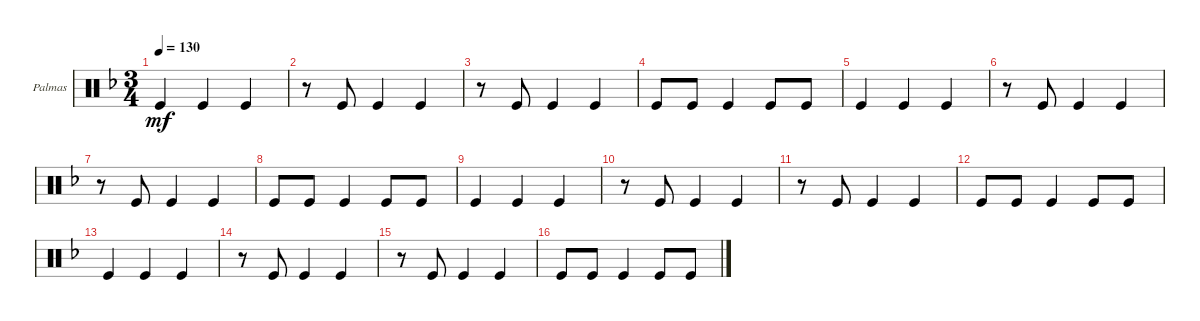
\defaultSystemsLayout 4
\bracketExtendMode groupsimilarinstruments
\firstSystemTrackNameOrientation horizontal
\otherSystemsTrackNameOrientation horizontal
\track ("Palmas" "Palmas") {instrument percussion}
\staff {score}
\articulation defaults
\ts (3 4)
\tempo 130
\clef neutral
\ks f "Kick (hit)".4{dy mf} "Kick (hit)".4 "Kick (hit)".4
|
r.8 "Kick (hit)".8 "Kick (hit)".4 "Kick (hit)".4 |
r.8 "Kick (hit)".8 "Kick (hit)".4 "Kick (hit)".4 |
"Kick (hit)".8 "Kick (hit)".8 "Kick (hit)".4 "Kick (hit)".8 "Kick (hit)".8 |
"Kick (hit)".4 "Kick (hit)".4 "Kick (hit)".4 |
r.8 "Kick (hit)".8 "Kick (hit)".4 "Kick (hit)".4 |
r.8 "Kick (hit)".8 "Kick (hit)".4 "Kick (hit)".4 |
"Kick (hit)".8 "Kick (hit)".8 "Kick (hit)".4 "Kick (hit)".8 "Kick (hit)".8 |
"Kick (hit)".4 "Kick (hit)".4 "Kick (hit)".4 |
r.8 "Kick (hit)".8 "Kick (hit)".4 "Kick (hit)".4 |
r.8 "Kick (hit)".8 "Kick (hit)".4 "Kick (hit)".4 |
"Kick (hit)".8 "Kick (hit)".8 "Kick (hit)".4 "Kick (hit)".8 "Kick (hit)".8 |
"Kick (hit)".4 "Kick (hit)".4 "Kick (hit)".4 |
r.8 "Kick (hit)".8 "Kick (hit)".4 "Kick (hit)".4 |
r.8 "Kick (hit)".8 "Kick (hit)".4 "Kick (hit)".4 |
"Kick (hit)".8 "Kick (hit)".8 "Kick (hit)".4 "Kick (hit)".8 "Kick (hit)".8
